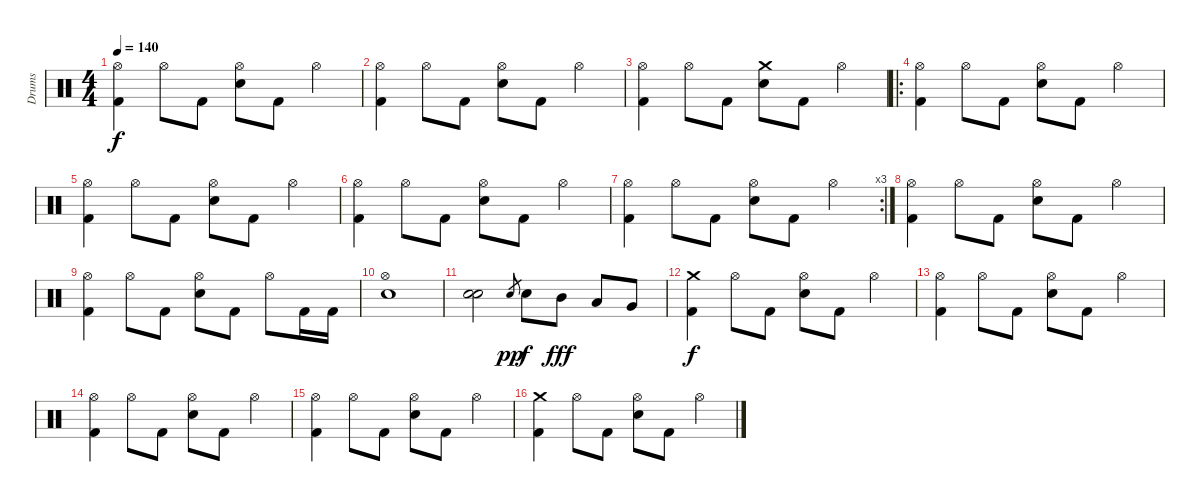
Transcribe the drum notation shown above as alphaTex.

\track ("Drums" "Drums") {instrument percussion}
\staff {score}
\articulation defaults
\ts (4 4)
\tempo 140
\clef neutral
\ks c
("Kick (hit) 2" "Hi-Hat (open)").4{dy f} "Hi-Hat (open)".8 "Kick (hit) 2".8 ("Hi-Hat (open)" "Snare (hit) 2").8 "Kick (hit) 2".8 "Hi-Hat (open)".4 |
("Kick (hit) 2" "Hi-Hat (open)").4 "Hi-Hat (open)".8 "Kick (hit) 2".8 ("Hi-Hat (open)" "Snare (hit) 2").8 "Kick (hit) 2".8 "Hi-Hat (open)".4 |
("Kick (hit) 2" "Hi-Hat (open)").4 "Hi-Hat (open)".8 "Kick (hit) 2".8 ("Crash medium (hit)" "Snare (hit) 2").8 "Kick (hit) 2".8 "Hi-Hat (open)".4 |
\ro
("Kick (hit) 2" "Hi-Hat (open)").4 "Hi-Hat (open)".8 "Kick (hit) 2".8 ("Hi-Hat (open)" "Snare (hit) 2").8 "Kick (hit) 2".8 "Hi-Hat (open)".4 |
("Kick (hit) 2" "Hi-Hat (open)").4 "Hi-Hat (open)".8 "Kick (hit) 2".8 ("Hi-Hat (open)" "Snare (hit) 2").8 "Kick (hit) 2".8 "Hi-Hat (open)".4 |
("Kick (hit) 2" "Hi-Hat (open)").4 "Hi-Hat (open)".8 "Kick (hit) 2".8 ("Hi-Hat (open)" "Snare (hit) 2").8 "Kick (hit) 2".8 "Hi-Hat (open)".4 |
\rc 3
("Kick (hit) 2" "Hi-Hat (open)").4 "Hi-Hat (open)".8 "Kick (hit) 2".8 ("Hi-Hat (open)" "Snare (hit) 2").8 "Kick (hit) 2".8 "Hi-Hat (open)".4 |
("Kick (hit) 2" "Hi-Hat (open)").4 "Hi-Hat (open)".8 "Kick (hit) 2".8 ("Hi-Hat (open)" "Snare (hit) 2").8 "Kick (hit) 2".8 "Hi-Hat (open)".4 |
("Kick (hit) 2" "Hi-Hat (open)").4 "Hi-Hat (open)".8 "Kick (hit) 2".8 ("Hi-Hat (open)" "Snare (hit) 2").8 "Kick (hit) 2".8 "Hi-Hat (open)".8 "Kick (hit) 2".16 "Kick (hit) 2".16 |
("Snare (hit) 2" "Hi-Hat (open)").1 |
("Snare (hit)" "Snare (hit)").2 "Snare (hit)".8{gr dy pp} "Snare (hit) 2".8{dy f} "Mid Tom (hit)".8{dy fff} "Low Tom (hit)".8 "Very Low Tom (hit)".8 |
("Kick (hit) 2" "Crash medium (hit)").4{dy f} "Hi-Hat (open)".8 "Kick (hit) 2".8 ("Hi-Hat (open)" "Snare (hit) 2").8 "Kick (hit) 2".8 "Hi-Hat (open)".4 |
("Kick (hit) 2" "Hi-Hat (open)").4 "Hi-Hat (open)".8 "Kick (hit) 2".8 ("Hi-Hat (open)" "Snare (hit) 2").8 "Kick (hit) 2".8 "Hi-Hat (open)".4 |
("Kick (hit) 2" "Hi-Hat (open)").4 "Hi-Hat (open)".8 "Kick (hit) 2".8 ("Hi-Hat (open)" "Snare (hit) 2").8 "Kick (hit) 2".8 "Hi-Hat (open)".4 |
("Kick (hit) 2" "Hi-Hat (open)").4 "Hi-Hat (open)".8 "Kick (hit) 2".8 ("Hi-Hat (open)" "Snare (hit) 2").8 "Kick (hit) 2".8 "Hi-Hat (open)".4 |
("Kick (hit) 2" "Crash medium (hit)").4 "Hi-Hat (open)".8 "Kick (hit) 2".8 ("Hi-Hat (open)" "Snare (hit) 2").8 "Kick (hit) 2".8 "Hi-Hat (open)".4
